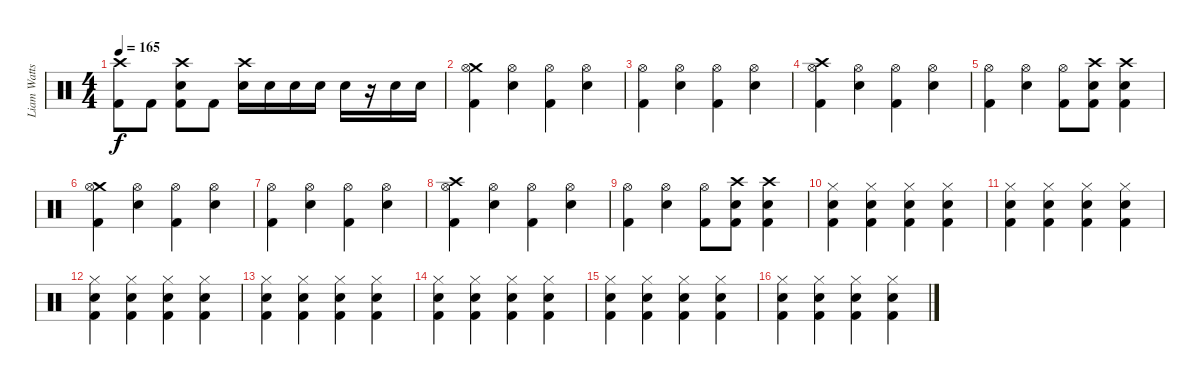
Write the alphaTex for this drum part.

\track ("Liam Watts (Percussion)" "Liam Watts") {instrument percussion}
\staff {score}
\articulation defaults
\ts (4 4)
\tempo 165
\clef neutral
\ks c
("Crash high (hit)" "Kick (hit) 2").8{dy f} "Kick (hit) 2".8 ("Crash high (hit)" "Snare (hit) 2" "Kick (hit) 2").8 "Kick (hit) 2".8 ("Crash high (hit)" "Snare (hit) 2").16 "Snare (hit) 2".16 "Snare (hit) 2".16 "Snare (hit) 2".16 "Snare (hit) 2".16 r.16 "Snare (hit) 2".16 "Snare (hit) 2".16 |
("Crash medium (hit)" "Hi-Hat (open)" "Kick (hit) 2").4 ("Hi-Hat (open)" "Snare (hit) 2").4 ("Hi-Hat (open)" "Kick (hit) 2").4 ("Hi-Hat (open)" "Snare (hit) 2").4 |
("Hi-Hat (open)" "Kick (hit) 2").4 ("Hi-Hat (open)" "Snare (hit) 2").4 ("Hi-Hat (open)" "Kick (hit) 2").4 ("Hi-Hat (open)" "Snare (hit) 2").4 |
("Crash high (hit)" "Hi-Hat (open)" "Kick (hit) 2").4 ("Hi-Hat (open)" "Snare (hit) 2").4 ("Hi-Hat (open)" "Kick (hit) 2").4 ("Hi-Hat (open)" "Snare (hit) 2").4 |
("Hi-Hat (open)" "Kick (hit) 2").4 ("Hi-Hat (open)" "Snare (hit) 2").4 ("Hi-Hat (open)" "Kick (hit) 2").8 ("Crash high (hit)" "Snare (hit) 2" "Kick (hit) 2").8 ("Crash high (hit)" "Snare (hit) 2" "Kick (hit) 2").4 |
("Crash medium (hit)" "Hi-Hat (open)" "Kick (hit) 2").4 ("Hi-Hat (open)" "Snare (hit) 2").4 ("Hi-Hat (open)" "Kick (hit) 2").4 ("Hi-Hat (open)" "Snare (hit) 2").4 |
("Hi-Hat (open)" "Kick (hit) 2").4 ("Hi-Hat (open)" "Snare (hit) 2").4 ("Hi-Hat (open)" "Kick (hit) 2").4 ("Hi-Hat (open)" "Snare (hit) 2").4 |
("Crash high (hit)" "Hi-Hat (open)" "Kick (hit) 2").4 ("Hi-Hat (open)" "Snare (hit) 2").4 ("Hi-Hat (open)" "Kick (hit) 2").4 ("Hi-Hat (open)" "Snare (hit) 2").4 |
("Hi-Hat (open)" "Kick (hit) 2").4 ("Hi-Hat (open)" "Snare (hit) 2").4 ("Hi-Hat (open)" "Kick (hit) 2").8 ("Crash high (hit)" "Snare (hit) 2" "Kick (hit) 2").8 ("Crash high (hit)" "Snare (hit) 2" "Kick (hit) 2").4 |
("Hi-Hat (closed)" "Snare (hit) 2" "Kick (hit) 2").4 ("Hi-Hat (closed)" "Snare (hit) 2" "Kick (hit) 2").4 ("Hi-Hat (closed)" "Snare (hit) 2" "Kick (hit) 2").4 ("Hi-Hat (closed)" "Snare (hit) 2" "Kick (hit) 2").4 |
("Hi-Hat (closed)" "Snare (hit) 2" "Kick (hit) 2").4 ("Hi-Hat (closed)" "Snare (hit) 2" "Kick (hit) 2").4 ("Hi-Hat (closed)" "Snare (hit) 2" "Kick (hit) 2").4 ("Hi-Hat (closed)" "Snare (hit) 2" "Kick (hit) 2").4 |
("Hi-Hat (closed)" "Snare (hit) 2" "Kick (hit) 2").4 ("Hi-Hat (closed)" "Snare (hit) 2" "Kick (hit) 2").4 ("Hi-Hat (closed)" "Snare (hit) 2" "Kick (hit) 2").4 ("Hi-Hat (closed)" "Snare (hit) 2" "Kick (hit) 2").4 |
("Hi-Hat (closed)" "Snare (hit) 2" "Kick (hit) 2").4 ("Hi-Hat (closed)" "Snare (hit) 2" "Kick (hit) 2").4 ("Hi-Hat (closed)" "Snare (hit) 2" "Kick (hit) 2").4 ("Hi-Hat (closed)" "Snare (hit) 2" "Kick (hit) 2").4 |
("Hi-Hat (closed)" "Snare (hit) 2" "Kick (hit) 2").4 ("Hi-Hat (closed)" "Snare (hit) 2" "Kick (hit) 2").4 ("Hi-Hat (closed)" "Snare (hit) 2" "Kick (hit) 2").4 ("Hi-Hat (closed)" "Snare (hit) 2" "Kick (hit) 2").4 |
("Hi-Hat (closed)" "Snare (hit) 2" "Kick (hit) 2").4 ("Hi-Hat (closed)" "Snare (hit) 2" "Kick (hit) 2").4 ("Hi-Hat (closed)" "Snare (hit) 2" "Kick (hit) 2").4 ("Hi-Hat (closed)" "Snare (hit) 2" "Kick (hit) 2").4 |
("Hi-Hat (closed)" "Snare (hit) 2" "Kick (hit) 2").4 ("Hi-Hat (closed)" "Snare (hit) 2" "Kick (hit) 2").4 ("Hi-Hat (closed)" "Snare (hit) 2" "Kick (hit) 2").4 ("Hi-Hat (closed)" "Snare (hit) 2" "Kick (hit) 2").4
